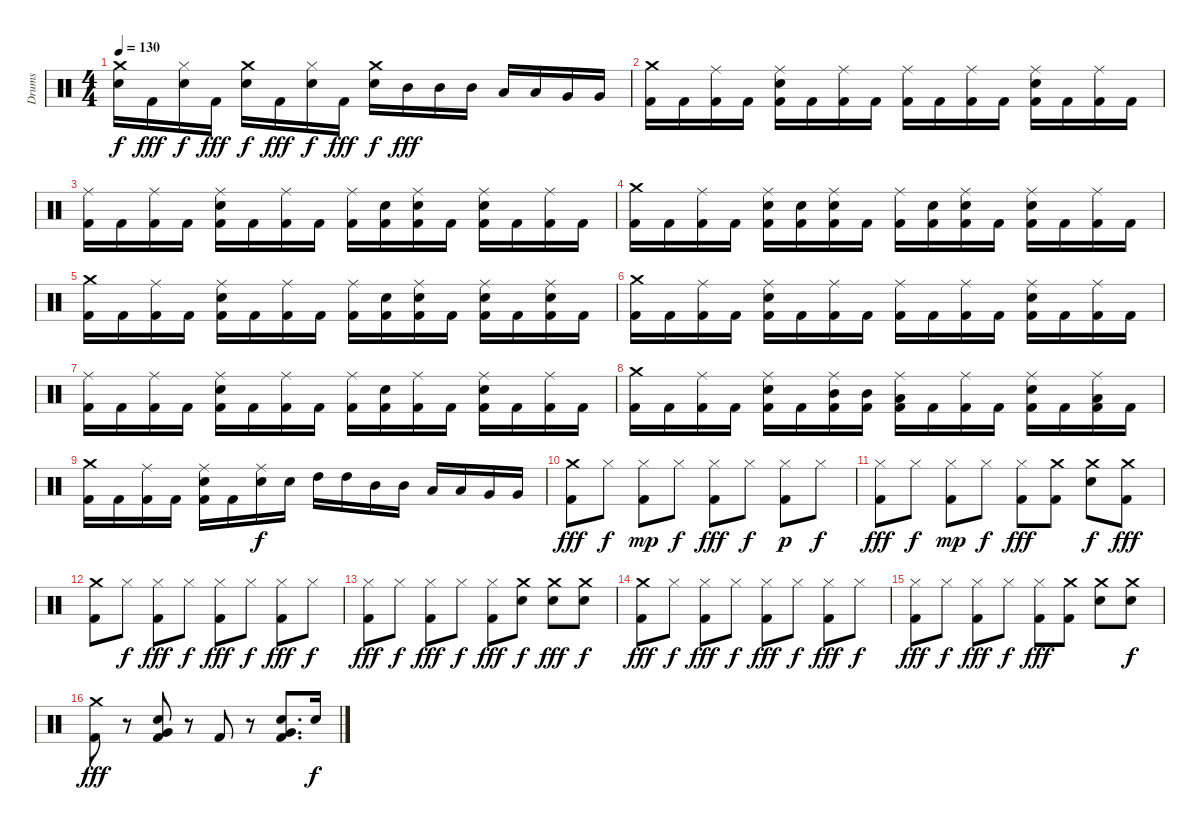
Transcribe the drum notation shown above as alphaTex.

\track ("Drums" "Drums") {instrument percussion}
\staff {score}
\articulation defaults
\ts (4 4)
\tempo 130
\clef neutral
\ks c
("Crash medium (hit)" "Electric Snare (hit)").16{dy f} "Kick (hit) 2".16{dy fff} ("Hi-Hat (closed)" "Electric Snare (hit)").16{dy f} "Kick (hit) 2".16{dy fff} ("Crash medium (hit)" "Electric Snare (hit)").16{dy f} "Kick (hit) 2".16{dy fff} ("Hi-Hat (closed)" "Electric Snare (hit)").16{dy f} "Kick (hit) 2".16{dy fff} ("Crash medium (hit)" "Electric Snare (hit)").16{dy f} "Mid Tom (hit)".16{dy fff} "Mid Tom (hit)".16 "Mid Tom (hit)".16 "Low Tom (hit)".16 "Low Tom (hit)".16 "Very Low Tom (hit)".16 "Very Low Tom (hit)".16 |
("Crash medium (hit)" "Kick (hit) 2").16 "Kick (hit) 2".16 ("Ride (middle)" "Kick (hit) 2").16 "Kick (hit) 2".16 ("Ride (middle)" "Electric Snare (hit)" "Kick (hit) 2").16 "Kick (hit) 2".16 ("Ride (middle)" "Kick (hit) 2").16 "Kick (hit) 2".16 ("Ride (middle)" "Kick (hit) 2").16 "Kick (hit) 2".16 ("Ride (middle)" "Kick (hit) 2").16 "Kick (hit) 2".16 ("Ride (middle)" "Electric Snare (hit)" "Kick (hit) 2").16 "Kick (hit) 2".16 ("Ride (middle)" "Kick (hit) 2").16 "Kick (hit) 2".16 |
("Ride (middle)" "Kick (hit) 2").16 "Kick (hit) 2".16 ("Ride (middle)" "Kick (hit) 2").16 "Kick (hit) 2".16 ("Ride (middle)" "Electric Snare (hit)" "Kick (hit) 2").16 "Kick (hit) 2".16 ("Ride (middle)" "Kick (hit) 2").16 "Kick (hit) 2".16 ("Ride (middle)" "Kick (hit) 2").16 ("Electric Snare (hit)" "Kick (hit) 2").16 ("Ride (middle)" "Electric Snare (hit)" "Kick (hit) 2").16 "Kick (hit) 2".16 ("Ride (middle)" "Electric Snare (hit)" "Kick (hit) 2").16 "Kick (hit) 2".16 ("Ride (middle)" "Kick (hit) 2").16 "Kick (hit) 2".16 |
("Crash medium (hit)" "Kick (hit) 2").16 "Kick (hit) 2".16 ("Ride (middle)" "Kick (hit) 2").16 "Kick (hit) 2".16 ("Ride (middle)" "Electric Snare (hit)" "Kick (hit) 2").16 ("Electric Snare (hit)" "Kick (hit) 2").16 ("Ride (middle)" "Electric Snare (hit)" "Kick (hit) 2").16 "Kick (hit) 2".16 ("Ride (middle)" "Kick (hit) 2").16 ("Electric Snare (hit)" "Kick (hit) 2").16 ("Ride (middle)" "Electric Snare (hit)" "Kick (hit) 2").16 "Kick (hit) 2".16 ("Ride (middle)" "Electric Snare (hit)" "Kick (hit) 2").16 "Kick (hit) 2".16 ("Ride (middle)" "Kick (hit) 2").16 "Kick (hit) 2".16 |
("Crash medium (hit)" "Kick (hit) 2").16 "Kick (hit) 2".16 ("Ride (middle)" "Kick (hit) 2").16 "Kick (hit) 2".16 ("Ride (middle)" "Electric Snare (hit)" "Kick (hit) 2").16 "Kick (hit) 2".16 ("Ride (middle)" "Kick (hit) 2").16 "Kick (hit) 2".16 ("Ride (middle)" "Kick (hit) 2").16 ("Electric Snare (hit)" "Kick (hit) 2").16 ("Ride (middle)" "Electric Snare (hit)" "Kick (hit) 2").16 "Kick (hit) 2".16 ("Ride (middle)" "Electric Snare (hit)" "Kick (hit) 2").16 "Kick (hit) 2".16 ("Ride (middle)" "Electric Snare (hit)" "Kick (hit) 2").16 "Kick (hit) 2".16 |
("Crash medium (hit)" "Kick (hit) 2").16 "Kick (hit) 2".16 ("Ride (middle)" "Kick (hit) 2").16 "Kick (hit) 2".16 ("Ride (middle)" "Electric Snare (hit)" "Kick (hit) 2").16 "Kick (hit) 2".16 ("Ride (middle)" "Kick (hit) 2").16 "Kick (hit) 2".16 ("Ride (middle)" "Kick (hit) 2").16 "Kick (hit) 2".16 ("Ride (middle)" "Kick (hit) 2").16 "Kick (hit) 2".16 ("Ride (middle)" "Electric Snare (hit)" "Kick (hit) 2").16 "Kick (hit) 2".16 ("Ride (middle)" "Kick (hit) 2").16 "Kick (hit) 2".16 |
("Ride (middle)" "Kick (hit) 2").16 "Kick (hit) 2".16 ("Ride (middle)" "Kick (hit) 2").16 "Kick (hit) 2".16 ("Ride (middle)" "Electric Snare (hit)" "Kick (hit) 2").16 "Kick (hit) 2".16 ("Ride (middle)" "Kick (hit) 2").16 "Kick (hit) 2".16 ("Ride (middle)" "Kick (hit) 2").16 ("Electric Snare (hit)" "Kick (hit) 2").16 ("Ride (middle)" "Kick (hit) 2").16 "Kick (hit) 2".16 ("Ride (middle)" "Electric Snare (hit)" "Kick (hit) 2").16 "Kick (hit) 2".16 ("Ride (middle)" "Kick (hit) 2").16 "Kick (hit) 2".16 |
("Crash medium (hit)" "Kick (hit) 2").16 "Kick (hit) 2".16 ("Ride (middle)" "Kick (hit) 2").16 "Kick (hit) 2".16 ("Ride (middle)" "Electric Snare (hit)" "Kick (hit) 2").16 "Kick (hit) 2".16 ("Ride (middle)" "Mid Tom (hit)" "Kick (hit) 2").16 ("Mid Tom (hit)" "Kick (hit) 2").16 ("Ride (middle)" "Low Tom (hit)" "Kick (hit) 2").16 "Kick (hit) 2".16 ("Ride (middle)" "Kick (hit) 2").16 "Kick (hit) 2".16 ("Ride (middle)" "Electric Snare (hit)" "Kick (hit) 2").16 "Kick (hit) 2".16 ("Ride (middle)" "Low Tom (hit)" "Kick (hit) 2").16 "Kick (hit) 2".16 |
("Crash medium (hit)" "Kick (hit) 2").16 "Kick (hit) 2".16 ("Ride (middle)" "Kick (hit) 2").16 "Kick (hit) 2".16 ("Ride (middle)" "Electric Snare (hit)" "Kick (hit) 2").16 "Kick (hit) 2".16 ("Ride (middle)" "Electric Snare (hit)").16{dy f} "Electric Snare (hit)".16 "High Tom (hit)".16 "High Tom (hit)".16 "Mid Tom (hit)".16 "Mid Tom (hit)".16 "Low Tom (hit)".16 "Low Tom (hit)".16 "Very Low Tom (hit)".16 "Very Low Tom (hit)".16 |
("Crash medium (hit)" "Kick (hit) 2").8{dy fff} "Hi-Hat (closed)".8{dy f} ("Hi-Hat (closed)" "Kick (hit) 2").8{dy mp} "Hi-Hat (closed)".8{dy f} ("Hi-Hat (closed)" "Kick (hit) 2").8{dy fff} "Hi-Hat (closed)".8{dy f} ("Hi-Hat (closed)" "Kick (hit) 2").8{dy p} "Hi-Hat (closed)".8{dy f} |
("Hi-Hat (closed)" "Kick (hit) 2").8{dy fff} "Hi-Hat (closed)".8{dy f} ("Hi-Hat (closed)" "Kick (hit) 2").8{dy mp} "Hi-Hat (closed)".8{dy f} ("Hi-Hat (closed)" "Kick (hit) 2").8{dy fff} ("Crash medium (hit)" "Kick (hit) 2").8 ("Crash medium (hit)" "Electric Snare (hit)").8{dy f} ("Crash medium (hit)" "Kick (hit) 2").8{dy fff} |
("Crash medium (hit)" "Kick (hit) 2").8 "Hi-Hat (closed)".8{dy f} ("Hi-Hat (closed)" "Kick (hit) 2").8{dy fff} "Hi-Hat (closed)".8{dy f} ("Hi-Hat (closed)" "Kick (hit) 2").8{dy fff} "Hi-Hat (closed)".8{dy f} ("Hi-Hat (closed)" "Kick (hit) 2").8{dy fff} "Hi-Hat (closed)".8{dy f} |
("Hi-Hat (closed)" "Kick (hit) 2").8{dy fff} "Hi-Hat (closed)".8{dy f} ("Hi-Hat (closed)" "Kick (hit) 2").8{dy fff} "Hi-Hat (closed)".8{dy f} ("Hi-Hat (closed)" "Kick (hit) 2").8{dy fff} ("Crash medium (hit)" "Electric Snare (hit)").8{dy f} ("Crash medium (hit)" "Electric Snare (hit)").8{dy fff} ("Crash medium (hit)" "Electric Snare (hit)").8{dy f} |
("Crash medium (hit)" "Kick (hit) 2").8{dy fff} "Hi-Hat (closed)".8{dy f} ("Hi-Hat (closed)" "Kick (hit) 2").8{dy fff} "Hi-Hat (closed)".8{dy f} ("Hi-Hat (closed)" "Kick (hit) 2").8{dy fff} "Hi-Hat (closed)".8{dy f} ("Hi-Hat (closed)" "Kick (hit) 2").8{dy fff} "Hi-Hat (closed)".8{dy f} |
("Hi-Hat (closed)" "Kick (hit) 2").8{dy fff} "Hi-Hat (closed)".8{dy f} ("Hi-Hat (closed)" "Kick (hit) 2").8{dy fff} "Hi-Hat (closed)".8{dy f} ("Hi-Hat (closed)" "Kick (hit) 2").8{dy fff} ("Crash medium (hit)" "Kick (hit) 2").8 ("Crash medium (hit)" "Electric Snare (hit)").8 ("Crash medium (hit)" "Electric Snare (hit)").8{dy f} |
("Crash medium (hit)" "Kick (hit) 2").8{dy fff} r.8 ("Very Low Tom (hit)" "Electric Snare (hit)" "Kick (hit) 2").8 r.8 "Kick (hit) 2".8 r.8 ("Very Low Tom (hit)" "Electric Snare (hit)" "Kick (hit) 2").8{d} "Electric Snare (hit)".16{dy f}
